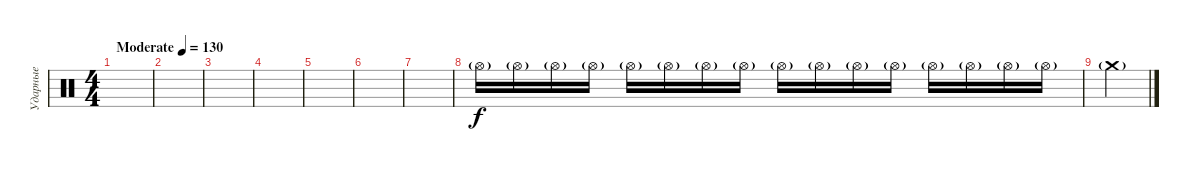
\track ("Ударные" "Ударные") {instrument percussion}
\staff {score}
\articulation defaults
\ts (4 4)
\tempo (130 "Moderate")
\clef neutral
\ks c
|
|
|
|
|
|
|
"Hi-Hat (open)"{g}.16{volume 2} "Hi-Hat (open)"{g}.16{volume 4} "Hi-Hat (open)"{g}.16{volume 6} "Hi-Hat (open)"{g}.16{volume 8} "Hi-Hat (open)"{g}.16{volume 10} "Hi-Hat (open)"{g}.16{volume 12} "Hi-Hat (open)"{g}.16{volume 14} "Hi-Hat (open)"{g}.16{volume 16} "Hi-Hat (open)"{g}.16 "Hi-Hat (open)"{g}.16 "Hi-Hat (open)"{g}.16 "Hi-Hat (open)"{g}.16 "Hi-Hat (open)"{g}.16 "Hi-Hat (open)"{g}.16 "Hi-Hat (open)"{g}.16 "Hi-Hat (open)"{g}.16 |
"Crash medium (hit)"{g}.4
